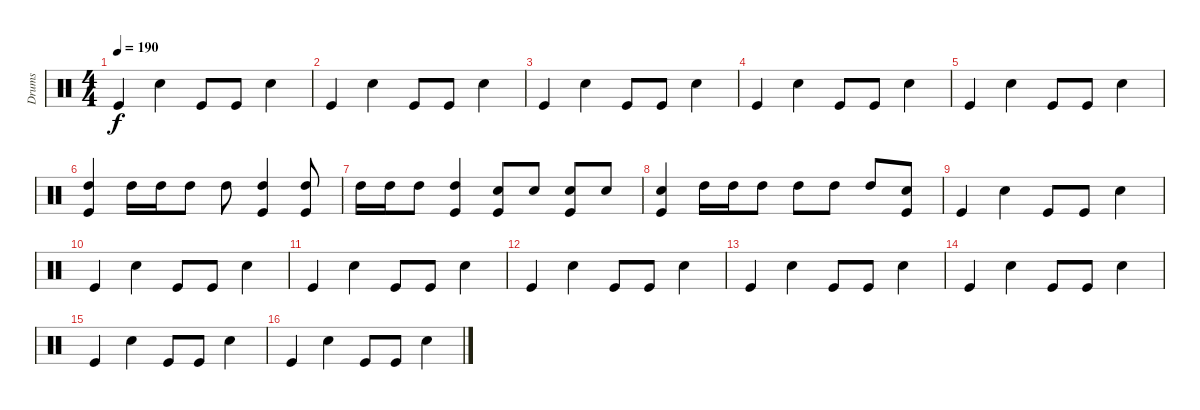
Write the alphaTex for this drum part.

\track ("Drums" "Drums") {instrument percussion}
\staff {score}
\articulation defaults
\ts (4 4)
\tempo 190
\clef neutral
\ks c "Kick (hit)".4{dy f} "Snare (hit) 2".4 "Kick (hit)".8 "Kick (hit)".8 "Snare (hit) 2".4
|
"Kick (hit)".4 "Snare (hit) 2".4 "Kick (hit)".8 "Kick (hit)".8 "Snare (hit) 2".4 |
"Kick (hit)".4 "Snare (hit) 2".4 "Kick (hit)".8 "Kick (hit)".8 "Snare (hit) 2".4 |
"Kick (hit)".4 "Snare (hit) 2".4 "Kick (hit)".8 "Kick (hit)".8 "Snare (hit) 2".4 |
"Kick (hit)".4 "Snare (hit) 2".4 "Kick (hit)".8 "Kick (hit)".8 "Snare (hit) 2".4 |
("High Tom (hit)" "Kick (hit)").4 "High Tom (hit)".16 "High Tom (hit)".16 "High Tom (hit)".8 "High Tom (hit)".8 ("High Tom (hit)" "Kick (hit)").4 ("High Tom (hit)" "Kick (hit)").8 |
"High Tom (hit)".16 "High Tom (hit)".16 "High Tom (hit)".8 ("High Tom (hit)" "Kick (hit)").4 ("Snare (hit) 2" "Kick (hit)").8 "Snare (hit) 2".8 ("Snare (hit) 2" "Kick (hit)").8 "Snare (hit) 2".8 |
("Snare (hit) 2" "Kick (hit)").4 "High Tom (hit)".16 "High Tom (hit)".16 "High Tom (hit)".8 "High Tom (hit)".8 "High Tom (hit)".8 "High Tom (hit)".8 ("Snare (hit) 2" "Kick (hit)").8 |
"Kick (hit)".4 "Snare (hit) 2".4 "Kick (hit)".8 "Kick (hit)".8 "Snare (hit) 2".4 |
"Kick (hit)".4 "Snare (hit) 2".4 "Kick (hit)".8 "Kick (hit)".8 "Snare (hit) 2".4 |
"Kick (hit)".4 "Snare (hit) 2".4 "Kick (hit)".8 "Kick (hit)".8 "Snare (hit) 2".4 |
"Kick (hit)".4 "Snare (hit) 2".4 "Kick (hit)".8 "Kick (hit)".8 "Snare (hit) 2".4 |
"Kick (hit)".4 "Snare (hit) 2".4 "Kick (hit)".8 "Kick (hit)".8 "Snare (hit) 2".4 |
"Kick (hit)".4 "Snare (hit) 2".4 "Kick (hit)".8 "Kick (hit)".8 "Snare (hit) 2".4 |
"Kick (hit)".4 "Snare (hit) 2".4 "Kick (hit)".8 "Kick (hit)".8 "Snare (hit) 2".4 |
"Kick (hit)".4 "Snare (hit) 2".4 "Kick (hit)".8 "Kick (hit)".8 "Snare (hit) 2".4
